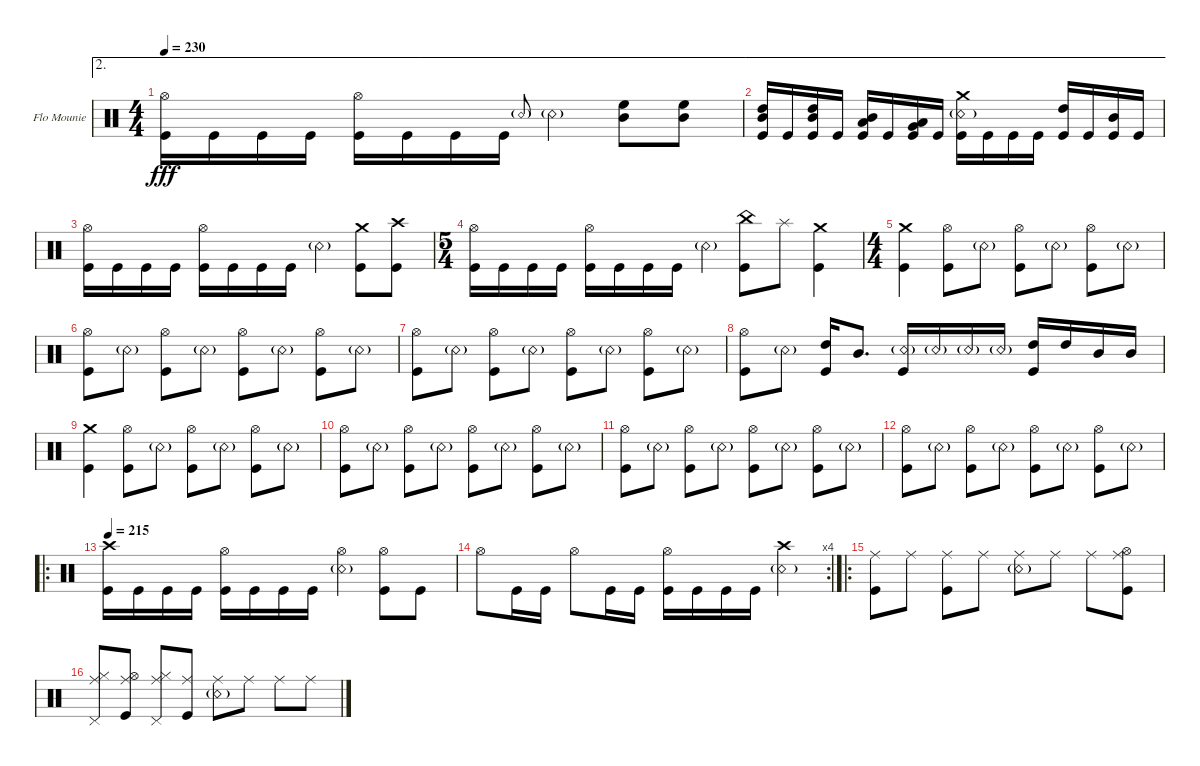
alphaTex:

\bracketExtendMode groupsimilarinstruments
\firstSystemTrackNameOrientation horizontal
\otherSystemsTrackNameOrientation horizontal
\track ("Flo Mounier" "Flo Mounie") {instrument percussion}
\staff {score}
\articulation defaults
\ae 2
\ts (4 4)
\tempo 230
\clef neutral
\ks c
("Kick (hit)" "Hi-Hat (open)").16{dy fff} "Kick (hit)".16 "Kick (hit)".16 "Kick (hit)".16 ("Kick (hit)" "Hi-Hat (open)").16 "Kick (hit)".16 "Kick (hit)".16 "Kick (hit)".16 "Snare (rim shot)"{g}.8{gr onbeat} "Snare (rim shot)"{g}.4 ("High Floor Tom (hit)" "Mid Tom (hit)").8 ("High Floor Tom (hit)" "Mid Tom (hit)").8 |
\ae 2
("Kick (hit)" "High Tom (hit)" "Mid Tom (hit)").16 "Kick (hit)".16 ("Kick (hit)" "Mid Tom (hit)" "High Tom (hit)").16 "Kick (hit)".16 ("Kick (hit)" "Low Tom (hit)" "Mid Tom (hit)").16 "Kick (hit)".16 ("Kick (hit)" "Low Tom (hit)" "Very Low Tom (hit)").16 "Kick (hit)".16 ("Kick (hit)" "Snare (rim shot)"{g} "Crash medium (hit)").16 "Kick (hit)".16 "Kick (hit)".16 "Kick (hit)".16 ("Kick (hit)" "High Tom (hit)").16 "Kick (hit)".16 ("Kick (hit)" "Mid Tom (hit)").16 "Kick (hit)".16 |
("Kick (hit)" "Hi-Hat (open)").16 "Kick (hit)".16 "Kick (hit)".16 "Kick (hit)".16 ("Kick (hit)" "Hi-Hat (open)").16 "Kick (hit)".16 "Kick (hit)".16 "Kick (hit)".16 "Snare (rim shot)"{g}.4 ("Crash medium (hit)" "Kick (hit)").8 ("Crash high (hit)" "Kick (hit)").8 |
\ts (5 4)
\beaming (8 2 2 2 2 2)
("Kick (hit)" "Hi-Hat (open)").16 "Kick (hit)".16 "Kick (hit)".16 "Kick (hit)".16 ("Kick (hit)" "Hi-Hat (open)").16 "Kick (hit)".16 "Kick (hit)".16 "Kick (hit)".16 "Snare (rim shot)"{g}.4 ("China (hit)" "Kick (hit)").8 "Splash (hit)".8 ("Crash medium (hit)" "Kick (hit)").4 |
\ts (4 4)
("Kick (hit)" "Crash medium (hit)").4 ("Kick (hit)" "Hi-Hat (open)").8 "Snare (rim shot)"{g}.8 ("Kick (hit)" "Hi-Hat (open)").8 "Snare (rim shot)"{g}.8 ("Kick (hit)" "Hi-Hat (open)").8 "Snare (rim shot)"{g}.8 |
("Kick (hit)" "Hi-Hat (open)").8 "Snare (rim shot)"{g}.8 ("Kick (hit)" "Hi-Hat (open)").8 "Snare (rim shot)"{g}.8 ("Kick (hit)" "Hi-Hat (open)").8 "Snare (rim shot)"{g}.8 ("Kick (hit)" "Hi-Hat (open)").8 "Snare (rim shot)"{g}.8 |
("Kick (hit)" "Hi-Hat (open)").8 "Snare (rim shot)"{g}.8 ("Kick (hit)" "Hi-Hat (open)").8 "Snare (rim shot)"{g}.8 ("Kick (hit)" "Hi-Hat (open)").8 "Snare (rim shot)"{g}.8 ("Kick (hit)" "Hi-Hat (open)").8 "Snare (rim shot)"{g}.8 |
("Kick (hit)" "Hi-Hat (open)").8 "Snare (rim shot)"{g}.8 ("High Tom (hit)" "Kick (hit)").16 "Mid Tom (hit)".8{d} ("Snare (rim shot)"{g} "Kick (hit)").16 "Snare (rim shot)"{g}.16 "Snare (rim shot)"{g}.16 "Snare (rim shot)"{g}.16 ("Kick (hit)" "High Tom (hit)").16 "High Tom (hit)".16 "Mid Tom (hit)".16 "Mid Tom (hit)".16 |
("Kick (hit)" "Crash medium (hit)").4 ("Kick (hit)" "Hi-Hat (open)").8 "Snare (rim shot)"{g}.8 ("Kick (hit)" "Hi-Hat (open)").8 "Snare (rim shot)"{g}.8 ("Kick (hit)" "Hi-Hat (open)").8 "Snare (rim shot)"{g}.8 |
("Kick (hit)" "Hi-Hat (open)").8 "Snare (rim shot)"{g}.8 ("Kick (hit)" "Hi-Hat (open)").8 "Snare (rim shot)"{g}.8 ("Kick (hit)" "Hi-Hat (open)").8 "Snare (rim shot)"{g}.8 ("Kick (hit)" "Hi-Hat (open)").8 "Snare (rim shot)"{g}.8 |
("Kick (hit)" "Hi-Hat (open)").8 "Snare (rim shot)"{g}.8 ("Kick (hit)" "Hi-Hat (open)").8 "Snare (rim shot)"{g}.8 ("Kick (hit)" "Hi-Hat (open)").8 "Snare (rim shot)"{g}.8 ("Kick (hit)" "Hi-Hat (open)").8 "Snare (rim shot)"{g}.8 |
("Kick (hit)" "Hi-Hat (open)").8 "Snare (rim shot)"{g}.8 ("Kick (hit)" "Hi-Hat (open)").8 "Snare (rim shot)"{g}.8 ("Kick (hit)" "Hi-Hat (open)").8 "Snare (rim shot)"{g}.8 ("Kick (hit)" "Hi-Hat (open)").8 "Snare (rim shot)"{g}.8 |
\ro
\tempo 215
("Kick (hit)" "Crash high (hit)").16 "Kick (hit)".16 "Kick (hit)".16 "Kick (hit)".16 ("Kick (hit)" "Hi-Hat (open)").16 "Kick (hit)".16 "Kick (hit)".16 "Kick (hit)".16 ("Snare (rim shot)"{g} "Hi-Hat (open)").4 ("Hi-Hat (open)" "Kick (hit)").8 "Kick (hit)".8 |
\rc 4 "Hi-Hat (open)".8{beam merge} "Kick (hit)".16 "Kick (hit)".16 "Hi-Hat (open)".8 "Kick (hit)".16 "Kick (hit)".16
("Kick (hit)" "Hi-Hat (open)").16 "Kick (hit)".16 "Kick (hit)".16 "Kick (hit)".16 ("Snare (rim shot)"{g} "Crash high (hit)").4 |
\ro
("Kick (hit)" "Ride (middle)").8 "Ride (middle)".8 ("Ride (middle)" "Kick (hit)").8 "Ride (middle)".8 ("Ride (middle)" "Snare (rim shot)"{g}).8 "Ride (middle)".8 "Ride (middle)".8 ("Ride (middle)" "Kick (hit)" "Hi-Hat (open)").8 |
("Ride (middle)" "Hi-Hat (closed)" "Pedal Hi-Hat (hit)").8 ("Ride (middle)" "Kick (hit)" "Hi-Hat (open)").8 ("Ride (middle)" "Pedal Hi-Hat (hit)" "Hi-Hat (closed)").8 ("Ride (middle)" "Kick (hit)").8 ("Ride (middle)" "Snare (rim shot)"{g}).8 "Ride (middle)".8 "Ride (middle)".8 "Ride (middle)".8
